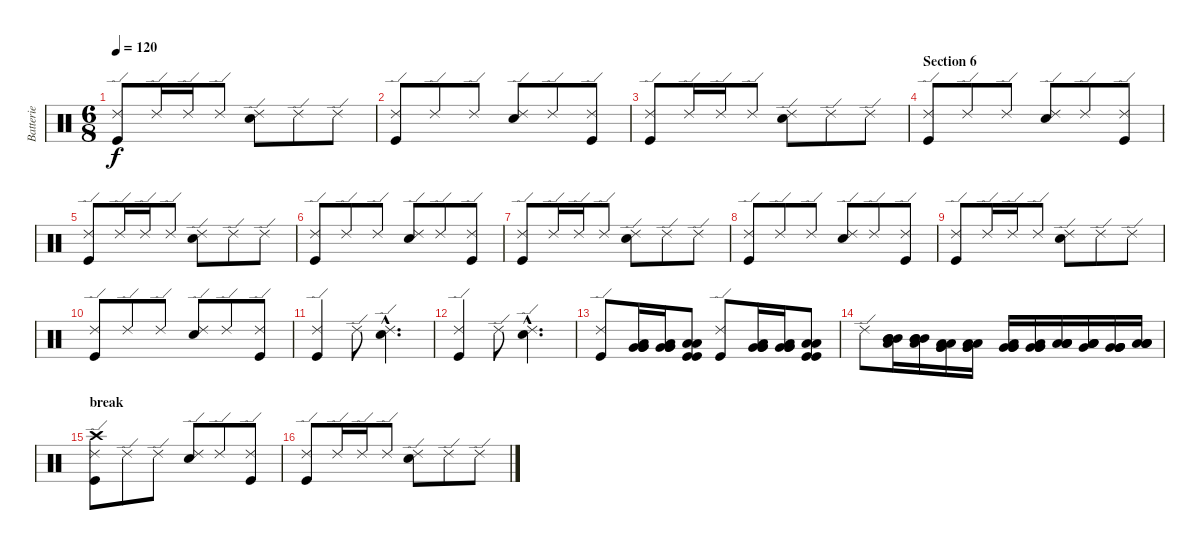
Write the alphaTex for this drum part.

\track ("Batterie" "Batterie") {instrument percussion}
\staff {score}
\articulation defaults
\ts (6 8)
\tempo 120
\clef neutral
\ks c
("Ride (edge) 2" "Kick (hit)").8{dy f} "Ride (edge) 2".16 "Ride (edge) 2".16 "Ride (edge) 2".8 ("Ride (edge) 2" "Snare (hit) 2").8 "Ride (edge) 2".8 "Ride (edge) 2".8 |
("Ride (edge) 2" "Kick (hit)").8 "Ride (edge) 2".8 "Ride (edge) 2".8 ("Ride (edge) 2" "Snare (hit) 2").8 "Ride (edge) 2".8 ("Ride (edge) 2" "Kick (hit)").8 |
("Ride (edge) 2" "Kick (hit)").8 "Ride (edge) 2".16 "Ride (edge) 2".16 "Ride (edge) 2".8 ("Ride (edge) 2" "Snare (hit) 2").8 "Ride (edge) 2".8 "Ride (edge) 2".8 |
\section ("" "Section 6")
("Ride (edge) 2" "Kick (hit)").8 "Ride (edge) 2".8 "Ride (edge) 2".8 ("Ride (edge) 2" "Snare (hit) 2").8 "Ride (edge) 2".8 ("Ride (edge) 2" "Kick (hit)").8 |
("Ride (edge) 2" "Kick (hit)").8 "Ride (edge) 2".16 "Ride (edge) 2".16 "Ride (edge) 2".8 ("Ride (edge) 2" "Snare (hit) 2").8 "Ride (edge) 2".8 "Ride (edge) 2".8 |
("Ride (edge) 2" "Kick (hit)").8 "Ride (edge) 2".8 "Ride (edge) 2".8 ("Ride (edge) 2" "Snare (hit) 2").8 "Ride (edge) 2".8 ("Ride (edge) 2" "Kick (hit)").8 |
("Ride (edge) 2" "Kick (hit)").8 "Ride (edge) 2".16 "Ride (edge) 2".16 "Ride (edge) 2".8 ("Ride (edge) 2" "Snare (hit) 2").8 "Ride (edge) 2".8 "Ride (edge) 2".8 |
("Ride (edge) 2" "Kick (hit)").8 "Ride (edge) 2".8 "Ride (edge) 2".8 ("Ride (edge) 2" "Snare (hit) 2").8 "Ride (edge) 2".8 ("Ride (edge) 2" "Kick (hit)").8 |
("Ride (edge) 2" "Kick (hit)").8 "Ride (edge) 2".16 "Ride (edge) 2".16 "Ride (edge) 2".8 ("Ride (edge) 2" "Snare (hit) 2").8 "Ride (edge) 2".8 "Ride (edge) 2".8 |
("Ride (edge) 2" "Kick (hit)").8 "Ride (edge) 2".8 "Ride (edge) 2".8 ("Ride (edge) 2" "Snare (hit) 2").8 "Ride (edge) 2".8 ("Ride (edge) 2" "Kick (hit)").8 |
("Ride (edge) 2" "Kick (hit)").4 "Ride (edge) 2".8 ("Ride (edge) 2"{hac} "Snare (hit) 2"{hac}).4{d} |
("Ride (edge) 2" "Kick (hit)").4 "Ride (edge) 2".8 ("Ride (edge) 2"{hac} "Snare (hit) 2"{hac}).4{d} |
("Ride (edge) 2" "Kick (hit)").8 ("Very Low Tom (hit)" "Very Low Tom (hit)" "Very Low Tom (hit)" "Low Floor Tom (hit)").16 ("Very Low Tom (hit)" "Very Low Tom (hit)" "Very Low Tom (hit)" "Low Floor Tom (hit)").16 ("Low Floor Tom (hit)" "Low Floor Tom (hit)" "Kick (hit)" "Kick (hit)").8 ("Ride (edge) 2" "Kick (hit)").8 ("Very Low Tom (hit)" "Very Low Tom (hit)" "Very Low Tom (hit)" "Low Floor Tom (hit)").16 ("Very Low Tom (hit)" "Very Low Tom (hit)" "Very Low Tom (hit)" "Low Floor Tom (hit)").16 ("Low Floor Tom (hit)" "Low Floor Tom (hit)" "Kick (hit)" "Kick (hit)").8 |
"Ride (edge) 2".8 ("Mid Tom (hit)" "Mid Tom (hit)" "Mid Tom (hit)" "Low Tom (hit)").16 ("Mid Tom (hit)" "Mid Tom (hit)" "Mid Tom (hit)" "Low Tom (hit)").16 ("Low Tom (hit)" "Low Tom (hit)" "Very Low Tom (hit)" "Very Low Tom (hit)").16 ("Low Tom (hit)" "Low Tom (hit)" "Very Low Tom (hit)" "Very Low Tom (hit)").16 ("Very Low Tom (hit)" "Very Low Tom (hit)" "Very Low Tom (hit)" "Low Floor Tom (hit)").16 ("Very Low Tom (hit)" "Very Low Tom (hit)" "Very Low Tom (hit)" "Low Floor Tom (hit)").16 ("Low Floor Tom (hit)" "Low Floor Tom (hit)" "Low Floor Tom (hit)" "Low Floor Tom (hit)").16 ("Low Tom (hit)" "Low Tom (hit)" "Low Tom (hit)" "Very Low Tom (hit)").16 ("Very Low Tom (hit)" "Very Low Tom (hit)" "Very Low Tom (hit)" "Very Low Tom (hit)").16 ("Low Floor Tom (hit)" "Low Floor Tom (hit)" "Low Floor Tom (hit)" "Low Floor Tom (hit)").16 |
\section ("" "break")
("Ride (edge) 2" "Crash high (hit)" "Kick (hit)").8{volume 14} "Ride (edge) 2".8 "Ride (edge) 2".8 ("Ride (edge) 2" "Snare (hit) 2").8 "Ride (edge) 2".8 ("Ride (edge) 2" "Kick (hit)").8 |
("Ride (edge) 2" "Kick (hit)").8 "Ride (edge) 2".16 "Ride (edge) 2".16 "Ride (edge) 2".8 ("Ride (edge) 2" "Snare (hit) 2").8 "Ride (edge) 2".8 "Ride (edge) 2".8
